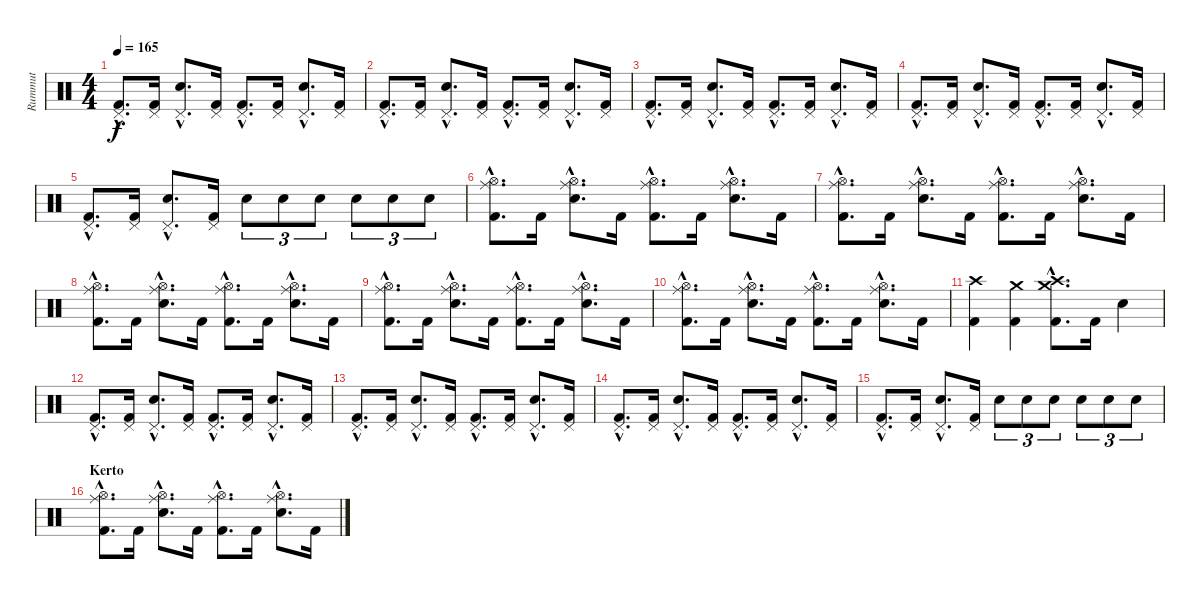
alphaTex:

\track ("Rummut" "Rummut") {instrument percussion}
\staff {score}
\articulation defaults
\ts (4 4)
\tempo 165
\clef neutral
\ks c
("Pedal Hi-Hat (hit)"{hac} "Kick (hit) 2"{hac}).8{d dy f} ("Pedal Hi-Hat (hit)" "Kick (hit) 2").16 ("Pedal Hi-Hat (hit)"{hac} "Snare (hit) 2"{hac}).8{d} ("Pedal Hi-Hat (hit)" "Kick (hit) 2").16 ("Pedal Hi-Hat (hit)"{hac} "Kick (hit) 2"{hac}).8{d} ("Pedal Hi-Hat (hit)" "Kick (hit) 2").16 ("Pedal Hi-Hat (hit)"{hac} "Snare (hit) 2"{hac}).8{d} ("Pedal Hi-Hat (hit)" "Kick (hit) 2").16 |
("Pedal Hi-Hat (hit)"{hac} "Kick (hit) 2"{hac}).8{d} ("Pedal Hi-Hat (hit)" "Kick (hit) 2").16 ("Pedal Hi-Hat (hit)"{hac} "Snare (hit) 2"{hac}).8{d} ("Pedal Hi-Hat (hit)" "Kick (hit) 2").16 ("Pedal Hi-Hat (hit)"{hac} "Kick (hit) 2"{hac}).8{d} ("Pedal Hi-Hat (hit)" "Kick (hit) 2").16 ("Pedal Hi-Hat (hit)"{hac} "Snare (hit) 2"{hac}).8{d} ("Pedal Hi-Hat (hit)" "Kick (hit) 2").16 |
("Pedal Hi-Hat (hit)"{hac} "Kick (hit) 2"{hac}).8{d} ("Pedal Hi-Hat (hit)" "Kick (hit) 2").16 ("Pedal Hi-Hat (hit)"{hac} "Snare (hit) 2"{hac}).8{d} ("Pedal Hi-Hat (hit)" "Kick (hit) 2").16 ("Pedal Hi-Hat (hit)"{hac} "Kick (hit) 2"{hac}).8{d} ("Pedal Hi-Hat (hit)" "Kick (hit) 2").16 ("Pedal Hi-Hat (hit)"{hac} "Snare (hit) 2"{hac}).8{d} ("Pedal Hi-Hat (hit)" "Kick (hit) 2").16 |
("Pedal Hi-Hat (hit)"{hac} "Kick (hit) 2"{hac}).8{d} ("Pedal Hi-Hat (hit)" "Kick (hit) 2").16 ("Pedal Hi-Hat (hit)"{hac} "Snare (hit) 2"{hac}).8{d} ("Pedal Hi-Hat (hit)" "Kick (hit) 2").16 ("Pedal Hi-Hat (hit)"{hac} "Kick (hit) 2"{hac}).8{d} ("Pedal Hi-Hat (hit)" "Kick (hit) 2").16 ("Pedal Hi-Hat (hit)"{hac} "Snare (hit) 2"{hac}).8{d} ("Pedal Hi-Hat (hit)" "Kick (hit) 2").16 |
("Pedal Hi-Hat (hit)"{hac} "Kick (hit) 2"{hac}).8{d} ("Pedal Hi-Hat (hit)" "Kick (hit) 2").16 ("Pedal Hi-Hat (hit)"{hac} "Snare (hit) 2"{hac}).8{d} ("Pedal Hi-Hat (hit)" "Kick (hit) 2").16 "Snare (hit) 2".8{tu (3 2)} "Snare (hit) 2".8{tu (3 2)} "Snare (hit) 2".8{tu (3 2)} "Snare (hit) 2".8{tu (3 2)} "Snare (hit) 2".8{tu (3 2)} "Snare (hit) 2".8{tu (3 2)} |
("Hi-Hat (open)"{hac} "Ride (middle)"{hac} "Kick (hit) 2"{hac}).8{d} "Kick (hit) 2".16 ("Hi-Hat (open)"{hac} "Snare (hit) 2"{hac} "Ride (middle)"{hac}).8{d} "Kick (hit) 2".16 ("Hi-Hat (open)"{hac} "Ride (middle)"{hac} "Kick (hit) 2"{hac}).8{d} "Kick (hit) 2".16 ("Hi-Hat (open)"{hac} "Snare (hit) 2"{hac} "Ride (middle)"{hac}).8{d} "Kick (hit) 2".16 |
("Hi-Hat (open)"{hac} "Ride (middle)"{hac} "Kick (hit) 2"{hac}).8{d} "Kick (hit) 2".16 ("Hi-Hat (open)"{hac} "Snare (hit) 2"{hac} "Ride (middle)"{hac}).8{d} "Kick (hit) 2".16 ("Hi-Hat (open)"{hac} "Ride (middle)"{hac} "Kick (hit) 2"{hac}).8{d} "Kick (hit) 2".16 ("Hi-Hat (open)"{hac} "Snare (hit) 2"{hac} "Ride (middle)"{hac}).8{d} "Kick (hit) 2".16 |
("Hi-Hat (open)"{hac} "Ride (middle)"{hac} "Kick (hit) 2"{hac}).8{d} "Kick (hit) 2".16 ("Hi-Hat (open)"{hac} "Snare (hit) 2"{hac} "Ride (middle)"{hac}).8{d} "Kick (hit) 2".16 ("Hi-Hat (open)"{hac} "Ride (middle)"{hac} "Kick (hit) 2"{hac}).8{d} "Kick (hit) 2".16 ("Hi-Hat (open)"{hac} "Snare (hit) 2"{hac} "Ride (middle)"{hac}).8{d} "Kick (hit) 2".16 |
("Hi-Hat (open)"{hac} "Ride (middle)"{hac} "Kick (hit) 2"{hac}).8{d} "Kick (hit) 2".16 ("Hi-Hat (open)"{hac} "Snare (hit) 2"{hac} "Ride (middle)"{hac}).8{d} "Kick (hit) 2".16 ("Hi-Hat (open)"{hac} "Ride (middle)"{hac} "Kick (hit) 2"{hac}).8{d} "Kick (hit) 2".16 ("Hi-Hat (open)"{hac} "Snare (hit) 2"{hac} "Ride (middle)"{hac}).8{d} "Kick (hit) 2".16 |
("Hi-Hat (open)"{hac} "Ride (middle)"{hac} "Kick (hit) 2"{hac}).8{d} "Kick (hit) 2".16 ("Hi-Hat (open)"{hac} "Snare (hit) 2"{hac} "Ride (middle)"{hac}).8{d} "Kick (hit) 2".16 ("Hi-Hat (open)"{hac} "Ride (middle)"{hac} "Kick (hit) 2"{hac}).8{d} "Kick (hit) 2".16 ("Hi-Hat (open)"{hac} "Snare (hit) 2"{hac} "Ride (middle)"{hac}).8{d} "Kick (hit) 2".16 |
("Crash high (hit)" "Kick (hit) 2").4 ("Crash medium (hit)" "Kick (hit) 2").4 ("Crash medium (hit)"{hac} "Crash high (hit)"{hac} "Kick (hit) 2"{hac}).8{d} "Kick (hit) 2".16 "Snare (hit) 2".4 |
("Pedal Hi-Hat (hit)"{hac} "Kick (hit) 2"{hac}).8{d} ("Pedal Hi-Hat (hit)" "Kick (hit) 2").16 ("Pedal Hi-Hat (hit)"{hac} "Snare (hit) 2"{hac}).8{d} ("Pedal Hi-Hat (hit)" "Kick (hit) 2").16 ("Pedal Hi-Hat (hit)"{hac} "Kick (hit) 2"{hac}).8{d} ("Pedal Hi-Hat (hit)" "Kick (hit) 2").16 ("Pedal Hi-Hat (hit)"{hac} "Snare (hit) 2"{hac}).8{d} ("Pedal Hi-Hat (hit)" "Kick (hit) 2").16 |
("Pedal Hi-Hat (hit)"{hac} "Kick (hit) 2"{hac}).8{d} ("Pedal Hi-Hat (hit)" "Kick (hit) 2").16 ("Pedal Hi-Hat (hit)"{hac} "Snare (hit) 2"{hac}).8{d} ("Pedal Hi-Hat (hit)" "Kick (hit) 2").16 ("Pedal Hi-Hat (hit)"{hac} "Kick (hit) 2"{hac}).8{d} ("Pedal Hi-Hat (hit)" "Kick (hit) 2").16 ("Pedal Hi-Hat (hit)"{hac} "Snare (hit) 2"{hac}).8{d} ("Pedal Hi-Hat (hit)" "Kick (hit) 2").16 |
("Pedal Hi-Hat (hit)"{hac} "Kick (hit) 2"{hac}).8{d} ("Pedal Hi-Hat (hit)" "Kick (hit) 2").16 ("Pedal Hi-Hat (hit)"{hac} "Snare (hit) 2"{hac}).8{d} ("Pedal Hi-Hat (hit)" "Kick (hit) 2").16 ("Pedal Hi-Hat (hit)"{hac} "Kick (hit) 2"{hac}).8{d} ("Pedal Hi-Hat (hit)" "Kick (hit) 2").16 ("Pedal Hi-Hat (hit)"{hac} "Snare (hit) 2"{hac}).8{d} ("Pedal Hi-Hat (hit)" "Kick (hit) 2").16 |
("Pedal Hi-Hat (hit)"{hac} "Kick (hit) 2"{hac}).8{d} ("Pedal Hi-Hat (hit)" "Kick (hit) 2").16 ("Pedal Hi-Hat (hit)"{hac} "Snare (hit) 2"{hac}).8{d} ("Pedal Hi-Hat (hit)" "Kick (hit) 2").16 "Snare (hit) 2".8{tu (3 2)} "Snare (hit) 2".8{tu (3 2)} "Snare (hit) 2".8{tu (3 2)} "Snare (hit) 2".8{tu (3 2)} "Snare (hit) 2".8{tu (3 2)} "Snare (hit) 2".8{tu (3 2)} |
\section ("" "Kerto")
("Hi-Hat (open)"{hac} "Ride (middle)"{hac} "Kick (hit) 2"{hac}).8{d} "Kick (hit) 2".16 ("Hi-Hat (open)"{hac} "Snare (hit) 2"{hac} "Ride (middle)"{hac}).8{d} "Kick (hit) 2".16 ("Hi-Hat (open)"{hac} "Ride (middle)"{hac} "Kick (hit) 2"{hac}).8{d} "Kick (hit) 2".16 ("Hi-Hat (open)"{hac} "Snare (hit) 2"{hac} "Ride (middle)"{hac}).8{d} "Kick (hit) 2".16
